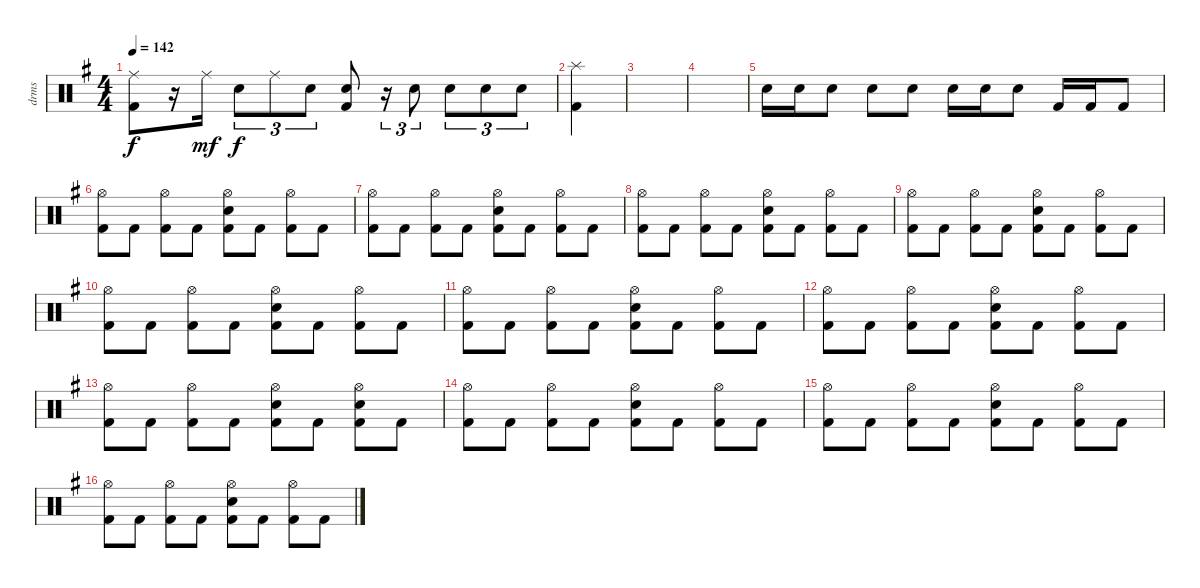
\track ("drms" "drms") {instrument percussion}
\staff {score}
\articulation defaults
\ts (4 4)
\tempo 142
\clef neutral
\ks g
("Ride (middle)" "Kick (hit) 2").8{dy f} r.16 "Ride (middle)".16{dy mf} "Snare (hit) 2".8{tu (3 2) dy f} "Ride (middle)".8{tu (3 2)} "Snare (hit) 2".8{tu (3 2)} ("Snare (hit) 2" "Kick (hit) 2").8 r.16{tu (3 2)} "Snare (hit) 2".8{tu (3 2)} "Snare (hit) 2".8{tu (3 2)} "Snare (hit) 2".8{tu (3 2)} "Snare (hit) 2".8{tu (3 2)} |
("Splash (hit)" "Kick (hit) 2").4 |
|
|
"Snare (hit) 2".16 "Snare (hit) 2".16 "Snare (hit) 2".8 "Snare (hit) 2".8 "Snare (hit) 2".8 "Snare (hit) 2".16 "Snare (hit) 2".16 "Snare (hit) 2".8 "Kick (hit) 2".16 "Kick (hit) 2".16 "Kick (hit) 2".8 |
("Hi-Hat (open)" "Kick (hit) 2").8 "Kick (hit) 2".8 ("Hi-Hat (open)" "Kick (hit) 2").8 "Kick (hit) 2".8 ("Hi-Hat (open)" "Snare (hit) 2" "Kick (hit) 2").8 "Kick (hit) 2".8 ("Hi-Hat (open)" "Kick (hit) 2").8 "Kick (hit) 2".8 |
("Hi-Hat (open)" "Kick (hit) 2").8 "Kick (hit) 2".8 ("Hi-Hat (open)" "Kick (hit) 2").8 "Kick (hit) 2".8 ("Hi-Hat (open)" "Snare (hit) 2" "Kick (hit) 2").8 "Kick (hit) 2".8 ("Hi-Hat (open)" "Kick (hit) 2").8 "Kick (hit) 2".8 |
("Hi-Hat (open)" "Kick (hit) 2").8 "Kick (hit) 2".8 ("Hi-Hat (open)" "Kick (hit) 2").8 "Kick (hit) 2".8 ("Hi-Hat (open)" "Snare (hit) 2" "Kick (hit) 2").8 "Kick (hit) 2".8 ("Hi-Hat (open)" "Kick (hit) 2").8 "Kick (hit) 2".8 |
("Hi-Hat (open)" "Kick (hit) 2").8 "Kick (hit) 2".8 ("Hi-Hat (open)" "Kick (hit) 2").8 "Kick (hit) 2".8 ("Hi-Hat (open)" "Snare (hit) 2" "Kick (hit) 2").8 "Kick (hit) 2".8 ("Hi-Hat (open)" "Kick (hit) 2").8 "Kick (hit) 2".8 |
("Hi-Hat (open)" "Kick (hit) 2").8 "Kick (hit) 2".8 ("Hi-Hat (open)" "Kick (hit) 2").8 "Kick (hit) 2".8 ("Hi-Hat (open)" "Snare (hit) 2" "Kick (hit) 2").8 "Kick (hit) 2".8 ("Hi-Hat (open)" "Kick (hit) 2").8 "Kick (hit) 2".8 |
("Hi-Hat (open)" "Kick (hit) 2").8 "Kick (hit) 2".8 ("Hi-Hat (open)" "Kick (hit) 2").8 "Kick (hit) 2".8 ("Hi-Hat (open)" "Snare (hit) 2" "Kick (hit) 2").8 "Kick (hit) 2".8 ("Hi-Hat (open)" "Kick (hit) 2").8 "Kick (hit) 2".8 |
("Hi-Hat (open)" "Kick (hit) 2").8 "Kick (hit) 2".8 ("Hi-Hat (open)" "Kick (hit) 2").8 "Kick (hit) 2".8 ("Hi-Hat (open)" "Snare (hit) 2" "Kick (hit) 2").8 "Kick (hit) 2".8 ("Hi-Hat (open)" "Kick (hit) 2").8 "Kick (hit) 2".8 |
("Hi-Hat (open)" "Kick (hit) 2").8 "Kick (hit) 2".8 ("Hi-Hat (open)" "Kick (hit) 2").8 "Kick (hit) 2".8 ("Hi-Hat (open)" "Snare (hit) 2" "Kick (hit) 2").8 "Kick (hit) 2".8 ("Hi-Hat (open)" "Snare (hit) 2" "Kick (hit) 2").8 "Kick (hit) 2".8 |
("Hi-Hat (open)" "Kick (hit) 2").8 "Kick (hit) 2".8 ("Hi-Hat (open)" "Kick (hit) 2").8 "Kick (hit) 2".8 ("Hi-Hat (open)" "Snare (hit) 2" "Kick (hit) 2").8 "Kick (hit) 2".8 ("Hi-Hat (open)" "Kick (hit) 2").8 "Kick (hit) 2".8 |
("Hi-Hat (open)" "Kick (hit) 2").8 "Kick (hit) 2".8 ("Hi-Hat (open)" "Kick (hit) 2").8 "Kick (hit) 2".8 ("Hi-Hat (open)" "Snare (hit) 2" "Kick (hit) 2").8 "Kick (hit) 2".8 ("Hi-Hat (open)" "Kick (hit) 2").8 "Kick (hit) 2".8 |
("Hi-Hat (open)" "Kick (hit) 2").8 "Kick (hit) 2".8 ("Hi-Hat (open)" "Kick (hit) 2").8 "Kick (hit) 2".8 ("Hi-Hat (open)" "Snare (hit) 2" "Kick (hit) 2").8 "Kick (hit) 2".8 ("Hi-Hat (open)" "Kick (hit) 2").8 "Kick (hit) 2".8
